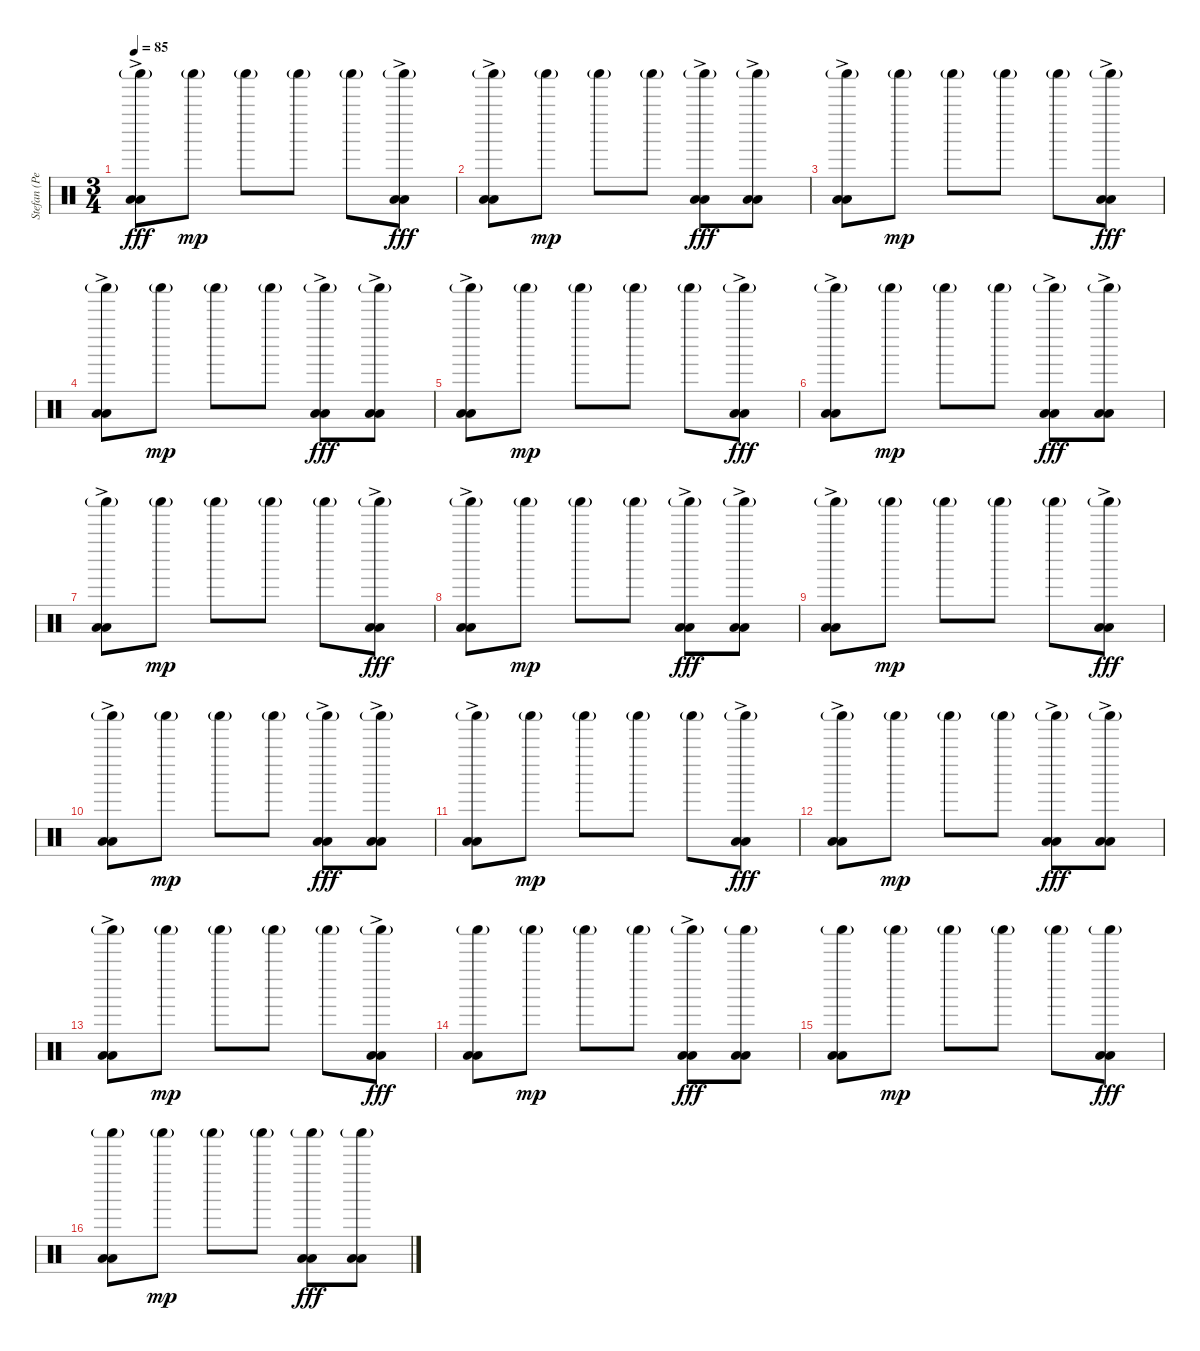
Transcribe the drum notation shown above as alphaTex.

\track ("Stefan (Percussion)" "Stefan (Pe") {instrument percussion}
\staff {score}
\articulation defaults
\ts (3 4)
\tempo 85
\clef neutral
\ks c
("Shaker (hit)"{g} "Low Floor Tom (hit)"{ac} "Low Floor Tom (hit)"{ac}).8{dy fff} "Shaker (hit)"{g}.8{dy mp} "Shaker (hit)"{g}.8 "Shaker (hit)"{g}.8 "Shaker (hit)"{g}.8 ("Shaker (hit)"{g} "Low Floor Tom (hit)"{ac} "Low Floor Tom (hit)"{ac}).8{dy fff} |
("Shaker (hit)"{g} "Low Floor Tom (hit)"{ac} "Low Floor Tom (hit)"{ac}).8 "Shaker (hit)"{g}.8{dy mp} "Shaker (hit)"{g}.8 "Shaker (hit)"{g}.8 ("Shaker (hit)"{g} "Low Floor Tom (hit)"{ac} "Low Floor Tom (hit)"{ac}).8{dy fff} ("Shaker (hit)"{g} "Low Floor Tom (hit)"{ac} "Low Floor Tom (hit)"{ac}).8 |
("Shaker (hit)"{g} "Low Floor Tom (hit)"{ac} "Low Floor Tom (hit)"{ac}).8 "Shaker (hit)"{g}.8{dy mp} "Shaker (hit)"{g}.8 "Shaker (hit)"{g}.8 "Shaker (hit)"{g}.8 ("Shaker (hit)"{g} "Low Floor Tom (hit)"{ac} "Low Floor Tom (hit)"{ac}).8{dy fff} |
("Shaker (hit)"{g} "Low Floor Tom (hit)"{ac} "Low Floor Tom (hit)"{ac}).8 "Shaker (hit)"{g}.8{dy mp} "Shaker (hit)"{g}.8 "Shaker (hit)"{g}.8 ("Shaker (hit)"{g} "Low Floor Tom (hit)"{ac} "Low Floor Tom (hit)"{ac}).8{dy fff} ("Shaker (hit)"{g} "Low Floor Tom (hit)"{ac} "Low Floor Tom (hit)"{ac}).8 |
("Shaker (hit)"{g} "Low Floor Tom (hit)"{ac} "Low Floor Tom (hit)"{ac}).8 "Shaker (hit)"{g}.8{dy mp} "Shaker (hit)"{g}.8 "Shaker (hit)"{g}.8 "Shaker (hit)"{g}.8 ("Shaker (hit)"{g} "Low Floor Tom (hit)"{ac} "Low Floor Tom (hit)"{ac}).8{dy fff} |
("Shaker (hit)"{g} "Low Floor Tom (hit)"{ac} "Low Floor Tom (hit)"{ac}).8 "Shaker (hit)"{g}.8{dy mp} "Shaker (hit)"{g}.8 "Shaker (hit)"{g}.8 ("Shaker (hit)"{g} "Low Floor Tom (hit)"{ac} "Low Floor Tom (hit)"{ac}).8{dy fff} ("Shaker (hit)"{g} "Low Floor Tom (hit)"{ac} "Low Floor Tom (hit)"{ac}).8 |
("Shaker (hit)"{g} "Low Floor Tom (hit)"{ac} "Low Floor Tom (hit)"{ac}).8 "Shaker (hit)"{g}.8{dy mp} "Shaker (hit)"{g}.8 "Shaker (hit)"{g}.8 "Shaker (hit)"{g}.8 ("Shaker (hit)"{g} "Low Floor Tom (hit)"{ac} "Low Floor Tom (hit)"{ac}).8{dy fff} |
("Shaker (hit)"{g} "Low Floor Tom (hit)"{ac} "Low Floor Tom (hit)"{ac}).8 "Shaker (hit)"{g}.8{dy mp} "Shaker (hit)"{g}.8 "Shaker (hit)"{g}.8 ("Shaker (hit)"{g} "Low Floor Tom (hit)"{ac} "Low Floor Tom (hit)"{ac}).8{dy fff} ("Shaker (hit)"{g} "Low Floor Tom (hit)"{ac} "Low Floor Tom (hit)"{ac}).8 |
("Shaker (hit)"{g} "Low Floor Tom (hit)"{ac} "Low Floor Tom (hit)"{ac}).8 "Shaker (hit)"{g}.8{dy mp} "Shaker (hit)"{g}.8 "Shaker (hit)"{g}.8 "Shaker (hit)"{g}.8 ("Shaker (hit)"{g} "Low Floor Tom (hit)"{ac} "Low Floor Tom (hit)"{ac}).8{dy fff} |
("Shaker (hit)"{g} "Low Floor Tom (hit)"{ac} "Low Floor Tom (hit)"{ac}).8 "Shaker (hit)"{g}.8{dy mp} "Shaker (hit)"{g}.8 "Shaker (hit)"{g}.8 ("Shaker (hit)"{g} "Low Floor Tom (hit)"{ac} "Low Floor Tom (hit)"{ac}).8{dy fff} ("Shaker (hit)"{g} "Low Floor Tom (hit)"{ac} "Low Floor Tom (hit)"{ac}).8 |
("Shaker (hit)"{g} "Low Floor Tom (hit)"{ac} "Low Floor Tom (hit)"{ac}).8 "Shaker (hit)"{g}.8{dy mp} "Shaker (hit)"{g}.8 "Shaker (hit)"{g}.8 "Shaker (hit)"{g}.8 ("Shaker (hit)"{g} "Low Floor Tom (hit)"{ac} "Low Floor Tom (hit)"{ac}).8{dy fff} |
("Shaker (hit)"{g} "Low Floor Tom (hit)"{ac} "Low Floor Tom (hit)"{ac}).8 "Shaker (hit)"{g}.8{dy mp} "Shaker (hit)"{g}.8 "Shaker (hit)"{g}.8 ("Shaker (hit)"{g} "Low Floor Tom (hit)"{ac} "Low Floor Tom (hit)"{ac}).8{dy fff} ("Shaker (hit)"{g} "Low Floor Tom (hit)"{ac} "Low Floor Tom (hit)"{ac}).8 |
("Shaker (hit)"{g} "Low Floor Tom (hit)"{ac} "Low Floor Tom (hit)"{ac}).8 "Shaker (hit)"{g}.8{dy mp} "Shaker (hit)"{g}.8 "Shaker (hit)"{g}.8 "Shaker (hit)"{g}.8 ("Shaker (hit)"{g} "Low Floor Tom (hit)"{ac} "Low Floor Tom (hit)"{ac}).8{dy fff} |
("Shaker (hit)"{g} "Low Floor Tom (hit)" "Low Floor Tom (hit)").8 "Shaker (hit)"{g}.8{dy mp} "Shaker (hit)"{g}.8 "Shaker (hit)"{g}.8 ("Shaker (hit)"{g} "Low Floor Tom (hit)"{ac} "Low Floor Tom (hit)"{ac}).8{dy fff} ("Shaker (hit)"{g} "Low Floor Tom (hit)" "Low Floor Tom (hit)").8 |
("Shaker (hit)"{g} "Low Floor Tom (hit)" "Low Floor Tom (hit)").8 "Shaker (hit)"{g}.8{dy mp} "Shaker (hit)"{g}.8 "Shaker (hit)"{g}.8 "Shaker (hit)"{g}.8 ("Shaker (hit)"{g} "Low Floor Tom (hit)" "Low Floor Tom (hit)").8{dy fff} |
("Shaker (hit)"{g} "Low Floor Tom (hit)" "Low Floor Tom (hit)").8 "Shaker (hit)"{g}.8{dy mp} "Shaker (hit)"{g}.8 "Shaker (hit)"{g}.8 ("Shaker (hit)"{g} "Low Floor Tom (hit)" "Low Floor Tom (hit)").8{dy fff} ("Shaker (hit)"{g} "Low Floor Tom (hit)" "Low Floor Tom (hit)").8
